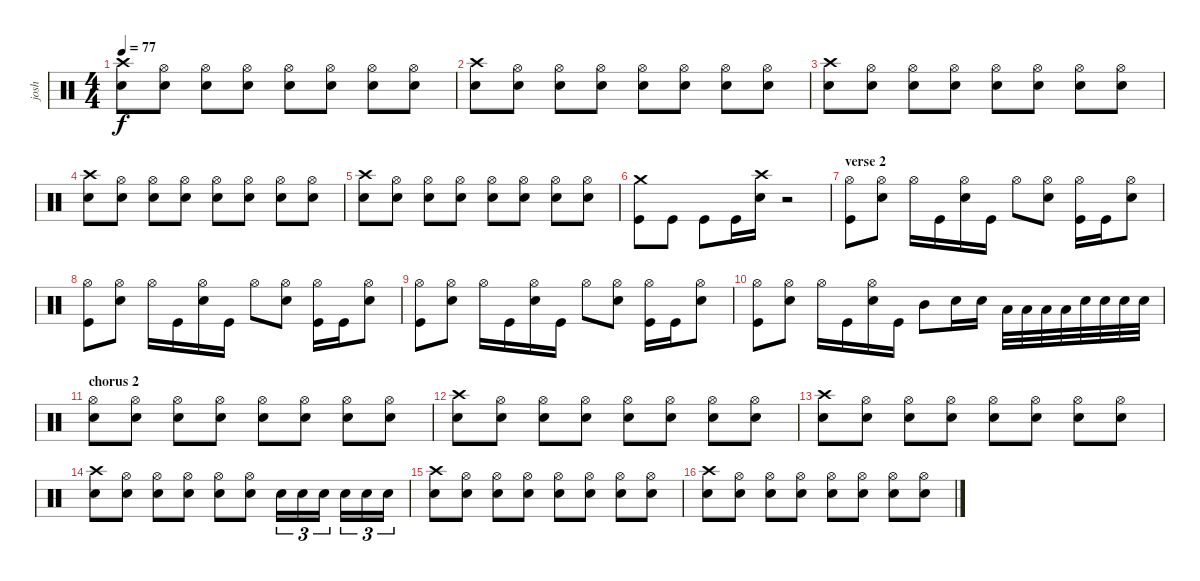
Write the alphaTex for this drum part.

\track ("josh" "josh") {instrument percussion}
\staff {score}
\articulation defaults
\ts (4 4)
\tempo 77
\clef neutral
\ks c
("Crash high (hit)" "Snare (hit) 2").8{dy f} ("Hi-Hat (open)" "Snare (hit) 2").8 ("Hi-Hat (open)" "Snare (hit) 2").8 ("Hi-Hat (open)" "Snare (hit) 2").8 ("Hi-Hat (open)" "Snare (hit) 2").8 ("Hi-Hat (open)" "Snare (hit) 2").8 ("Hi-Hat (open)" "Snare (hit) 2").8 ("Hi-Hat (open)" "Snare (hit) 2").8 |
("Crash high (hit)" "Snare (hit) 2").8 ("Hi-Hat (open)" "Snare (hit) 2").8 ("Hi-Hat (open)" "Snare (hit) 2").8 ("Hi-Hat (open)" "Snare (hit) 2").8 ("Hi-Hat (open)" "Snare (hit) 2").8 ("Hi-Hat (open)" "Snare (hit) 2").8 ("Hi-Hat (open)" "Snare (hit) 2").8 ("Hi-Hat (open)" "Snare (hit) 2").8 |
("Crash high (hit)" "Snare (hit) 2").8 ("Hi-Hat (open)" "Snare (hit) 2").8 ("Hi-Hat (open)" "Snare (hit) 2").8 ("Hi-Hat (open)" "Snare (hit) 2").8 ("Hi-Hat (open)" "Snare (hit) 2").8 ("Hi-Hat (open)" "Snare (hit) 2").8 ("Hi-Hat (open)" "Snare (hit) 2").8 ("Hi-Hat (open)" "Snare (hit) 2").8 |
("Crash high (hit)" "Snare (hit) 2").8 ("Hi-Hat (open)" "Snare (hit) 2").8 ("Hi-Hat (open)" "Snare (hit) 2").8 ("Hi-Hat (open)" "Snare (hit) 2").8 ("Hi-Hat (open)" "Snare (hit) 2").8 ("Hi-Hat (open)" "Snare (hit) 2").8 ("Hi-Hat (open)" "Snare (hit) 2").8 ("Hi-Hat (open)" "Snare (hit) 2").8 |
("Crash high (hit)" "Snare (hit) 2").8 ("Hi-Hat (open)" "Snare (hit) 2").8 ("Hi-Hat (open)" "Snare (hit) 2").8 ("Hi-Hat (open)" "Snare (hit) 2").8 ("Hi-Hat (open)" "Snare (hit) 2").8 ("Hi-Hat (open)" "Snare (hit) 2").8 ("Hi-Hat (open)" "Snare (hit) 2").8 ("Hi-Hat (open)" "Snare (hit) 2").8 |
("Crash medium (hit)" "Kick (hit)").8 "Kick (hit)".8 "Kick (hit)".8 "Kick (hit)".16 ("Crash high (hit)" "Snare (hit) 2").16 r.2 |
\section ("" "verse 2")
("Hi-Hat (open)" "Kick (hit)").8 ("Hi-Hat (open)" "Snare (hit) 2").8 "Hi-Hat (open)".16 "Kick (hit)".16 ("Hi-Hat (open)" "Snare (hit) 2").16 "Kick (hit)".16 "Hi-Hat (open)".8 ("Hi-Hat (open)" "Snare (hit) 2").8 ("Hi-Hat (open)" "Kick (hit)").16 "Kick (hit)".16 ("Hi-Hat (open)" "Snare (hit) 2").8 |
("Hi-Hat (open)" "Kick (hit)").8 ("Hi-Hat (open)" "Snare (hit) 2").8 "Hi-Hat (open)".16 "Kick (hit)".16 ("Hi-Hat (open)" "Snare (hit) 2").16 "Kick (hit)".16 "Hi-Hat (open)".8 ("Hi-Hat (open)" "Snare (hit) 2").8 ("Hi-Hat (open)" "Kick (hit)").16 "Kick (hit)".16 ("Hi-Hat (open)" "Snare (hit) 2").8 |
("Hi-Hat (open)" "Kick (hit)").8 ("Hi-Hat (open)" "Snare (hit) 2").8 "Hi-Hat (open)".16 "Kick (hit)".16 ("Hi-Hat (open)" "Snare (hit) 2").16 "Kick (hit)".16 "Hi-Hat (open)".8 ("Hi-Hat (open)" "Snare (hit) 2").8 ("Hi-Hat (open)" "Kick (hit)").16 "Kick (hit)".16 ("Hi-Hat (open)" "Snare (hit) 2").8 |
("Hi-Hat (open)" "Kick (hit)").8 ("Hi-Hat (open)" "Snare (hit) 2").8 "Hi-Hat (open)".16 "Kick (hit)".16 ("Hi-Hat (open)" "Snare (hit) 2").16 "Kick (hit)".16 "Mid Tom (hit)".8 "Snare (hit) 2".16 "Snare (hit) 2".16 "Low Tom (hit)".32 "Low Tom (hit)".32 "Low Tom (hit)".32 "Low Tom (hit)".32 "Snare (hit) 2".32 "Snare (hit) 2".32 "Snare (hit) 2".32 "Snare (hit) 2".32 |
\section ("" "chorus 2")
("Hi-Hat (open)" "Snare (hit) 2").8 ("Hi-Hat (open)" "Snare (hit) 2").8 ("Hi-Hat (open)" "Snare (hit) 2").8 ("Hi-Hat (open)" "Snare (hit) 2").8 ("Hi-Hat (open)" "Snare (hit) 2").8 ("Hi-Hat (open)" "Snare (hit) 2").8 ("Hi-Hat (open)" "Snare (hit) 2").8 ("Hi-Hat (open)" "Snare (hit) 2").8 |
("Crash high (hit)" "Snare (hit) 2").8 ("Hi-Hat (open)" "Snare (hit) 2").8 ("Hi-Hat (open)" "Snare (hit) 2").8 ("Hi-Hat (open)" "Snare (hit) 2").8 ("Hi-Hat (open)" "Snare (hit) 2").8 ("Hi-Hat (open)" "Snare (hit) 2").8 ("Hi-Hat (open)" "Snare (hit) 2").8 ("Hi-Hat (open)" "Snare (hit) 2").8 |
("Crash high (hit)" "Snare (hit) 2").8 ("Hi-Hat (open)" "Snare (hit) 2").8 ("Hi-Hat (open)" "Snare (hit) 2").8 ("Hi-Hat (open)" "Snare (hit) 2").8 ("Hi-Hat (open)" "Snare (hit) 2").8 ("Hi-Hat (open)" "Snare (hit) 2").8 ("Hi-Hat (open)" "Snare (hit) 2").8 ("Hi-Hat (open)" "Snare (hit) 2").8 |
("Crash high (hit)" "Snare (hit) 2").8 ("Hi-Hat (open)" "Snare (hit) 2").8 ("Hi-Hat (open)" "Snare (hit) 2").8 ("Hi-Hat (open)" "Snare (hit) 2").8 ("Hi-Hat (open)" "Snare (hit) 2").8 ("Hi-Hat (open)" "Snare (hit) 2").8 "Snare (hit) 2".16{tu (3 2)} "Snare (hit) 2".16{tu (3 2)} "Snare (hit) 2".16{tu (3 2)} "Snare (hit) 2".16{tu (3 2)} "Snare (hit) 2".16{tu (3 2)} "Snare (hit) 2".16{tu (3 2)} |
("Crash high (hit)" "Snare (hit) 2").8 ("Hi-Hat (open)" "Snare (hit) 2").8 ("Hi-Hat (open)" "Snare (hit) 2").8 ("Hi-Hat (open)" "Snare (hit) 2").8 ("Hi-Hat (open)" "Snare (hit) 2").8 ("Hi-Hat (open)" "Snare (hit) 2").8 ("Hi-Hat (open)" "Snare (hit) 2").8 ("Hi-Hat (open)" "Snare (hit) 2").8 |
("Crash high (hit)" "Snare (hit) 2").8 ("Hi-Hat (open)" "Snare (hit) 2").8 ("Hi-Hat (open)" "Snare (hit) 2").8 ("Hi-Hat (open)" "Snare (hit) 2").8 ("Hi-Hat (open)" "Snare (hit) 2").8 ("Hi-Hat (open)" "Snare (hit) 2").8 ("Hi-Hat (open)" "Snare (hit) 2").8 ("Hi-Hat (open)" "Snare (hit) 2").8
